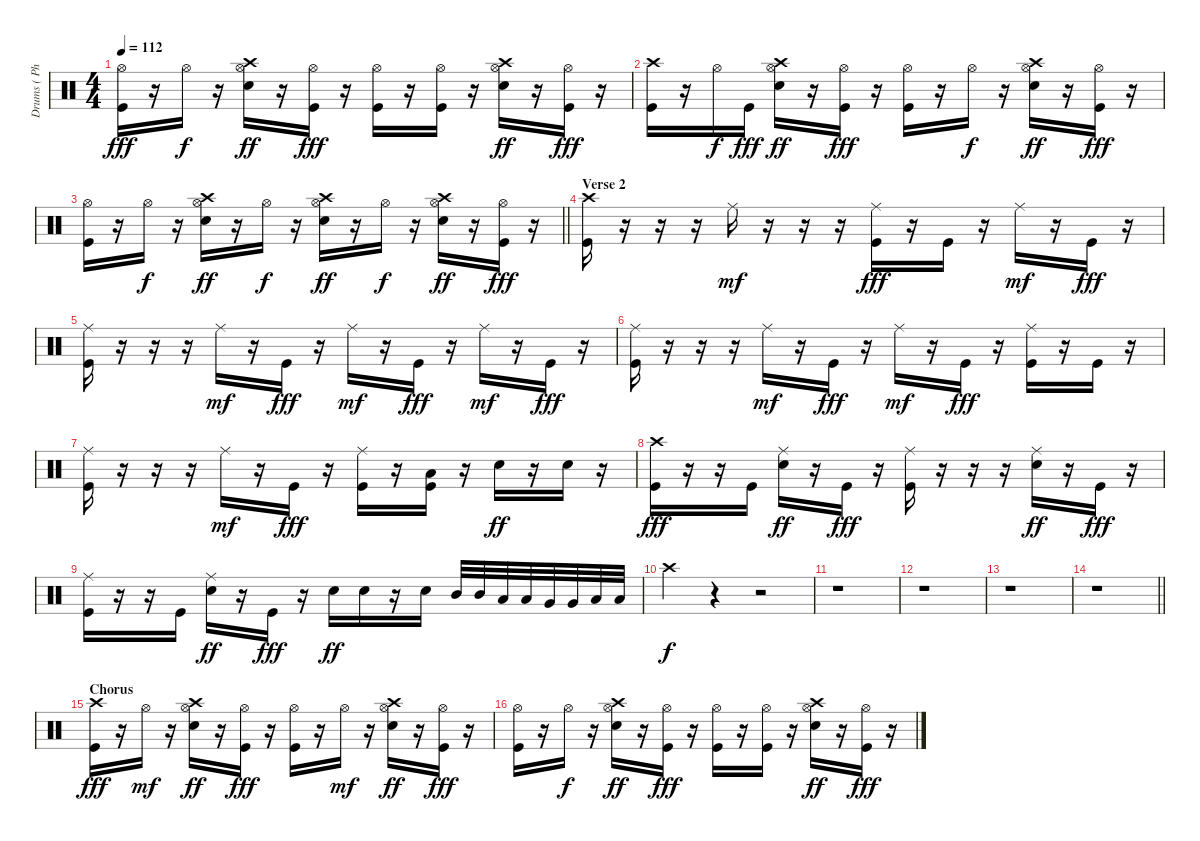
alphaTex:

\track ("Drums ( Phillip Selway )" "Drums ( Ph") {instrument percussion}
\staff {score}
\articulation defaults
\ts (4 4)
\tempo 112
\clef neutral
\ks c
("Hi-Hat (open)" "Kick (hit)").16{dy fff} r.16 "Hi-Hat (open)".16{dy f} r.16 ("Crash high (hit)" "Hi-Hat (open)" "Electric Snare (hit)").16{dy ff} r.16 ("Hi-Hat (open)" "Kick (hit)").16{dy fff} r.16 ("Hi-Hat (open)" "Kick (hit)").16 r.16 ("Hi-Hat (open)" "Kick (hit)").16 r.16 ("Crash high (hit)" "Hi-Hat (open)" "Electric Snare (hit)").16{dy ff} r.16 ("Hi-Hat (open)" "Kick (hit)").16{dy fff} r.16 |
("Crash high (hit)" "Kick (hit)").16 r.16 "Hi-Hat (open)".16{dy f} "Kick (hit)".16{dy fff} ("Crash high (hit)" "Hi-Hat (open)" "Electric Snare (hit)").16{dy ff} r.16 ("Hi-Hat (open)" "Kick (hit)").16{dy fff} r.16 ("Hi-Hat (open)" "Kick (hit)").16 r.16 "Hi-Hat (open)".16{dy f} r.16 ("Crash high (hit)" "Hi-Hat (open)" "Electric Snare (hit)").16{dy ff} r.16 ("Hi-Hat (open)" "Kick (hit)").16{dy fff} r.16 |
\barLineRight lightlight
("Hi-Hat (open)" "Kick (hit)").16 r.16 "Hi-Hat (open)".16{dy f} r.16 ("Crash high (hit)" "Hi-Hat (open)" "Electric Snare (hit)").16{dy ff} r.16 "Hi-Hat (open)".16{dy f} r.16 ("Crash high (hit)" "Hi-Hat (open)" "Electric Snare (hit)").16{dy ff} r.16 "Hi-Hat (open)".16{dy f} r.16 ("Crash high (hit)" "Hi-Hat (open)" "Electric Snare (hit)").16{dy ff} r.16 ("Hi-Hat (open)" "Kick (hit)").16{dy fff} r.16 |
\section ("" "Verse 2")
("Crash high (hit)" "Kick (hit)").16 r.16 r.16 r.16 "Ride (middle)".16{dy mf} r.16 r.16 r.16 ("Ride (middle)" "Kick (hit)").16{dy fff} r.16 "Kick (hit)".16 r.16 "Ride (middle)".16{dy mf} r.16 "Kick (hit)".16{dy fff} r.16 |
("Ride (middle)" "Kick (hit)").16 r.16 r.16 r.16 "Ride (middle)".16{dy mf} r.16 "Kick (hit)".16{dy fff} r.16 "Ride (middle)".16{dy mf} r.16 "Kick (hit)".16{dy fff} r.16 "Ride (middle)".16{dy mf} r.16 "Kick (hit)".16{dy fff} r.16 |
("Ride (middle)" "Kick (hit)").16 r.16 r.16 r.16 "Ride (middle)".16{dy mf} r.16 "Kick (hit)".16{dy fff} r.16 "Ride (middle)".16{dy mf} r.16 "Kick (hit)".16{dy fff} r.16 ("Ride (middle)" "Kick (hit)").16 r.16 "Kick (hit)".16 r.16 |
("Ride (middle)" "Kick (hit)").16 r.16 r.16 r.16 "Ride (middle)".16{dy mf} r.16 "Kick (hit)".16{dy fff} r.16 ("Ride (middle)" "Kick (hit)").16 r.16 ("Low Floor Tom (hit)" "Kick (hit)").16 r.16 "Electric Snare (hit)".16{dy ff} r.16 "Electric Snare (hit)".16 r.16 |
("Crash high (hit)" "Kick (hit)").16{dy fff} r.16 r.16 "Kick (hit)".16 ("Ride (middle)" "Electric Snare (hit)").16{dy ff} r.16 "Kick (hit)".16{dy fff} r.16 ("Ride (middle)" "Kick (hit)").16 r.16 r.16 r.16 ("Ride (middle)" "Electric Snare (hit)").16{dy ff} r.16 "Kick (hit)".16{dy fff} r.16 |
("Ride (middle)" "Kick (hit)").16 r.16 r.16 "Kick (hit)".16 ("Ride (middle)" "Electric Snare (hit)").16{dy ff} r.16 "Kick (hit)".16{dy fff} r.16 "Electric Snare (hit)".16{dy ff} "Electric Snare (hit)".16 r.16 "Electric Snare (hit)".16 "Mid Tom (hit)".32 "Mid Tom (hit)".32 "Low Tom (hit)".32 "Low Tom (hit)".32 "Very Low Tom (hit)".32 "Very Low Tom (hit)".32 "Low Floor Tom (hit)".32 "Low Floor Tom (hit)".32 |
"Crash high (hit)".4{dy f} r.4 r.2 |
r.1 |
r.1 |
r.1 |
\barLineRight lightlight
r.1 |
\section ("" "Chorus")
("Crash high (hit)" "Kick (hit)").16{dy fff} r.16 "Hi-Hat (open)".16{dy mf} r.16 ("Crash high (hit)" "Hi-Hat (open)" "Electric Snare (hit)").16{dy ff} r.16 ("Hi-Hat (open)" "Kick (hit)").16{dy fff} r.16 ("Hi-Hat (open)" "Kick (hit)").16 r.16 "Hi-Hat (open)".16{dy mf} r.16 ("Crash high (hit)" "Hi-Hat (open)" "Electric Snare (hit)").16{dy ff} r.16 ("Hi-Hat (open)" "Kick (hit)").16{dy fff} r.16 |
("Hi-Hat (open)" "Kick (hit)").16 r.16 "Hi-Hat (open)".16{dy f} r.16 ("Crash high (hit)" "Hi-Hat (open)" "Electric Snare (hit)").16{dy ff} r.16 ("Hi-Hat (open)" "Kick (hit)").16{dy fff} r.16 ("Hi-Hat (open)" "Kick (hit)").16 r.16 ("Hi-Hat (open)" "Kick (hit)").16 r.16 ("Crash high (hit)" "Hi-Hat (open)" "Electric Snare (hit)").16{dy ff} r.16 ("Hi-Hat (open)" "Kick (hit)").16{dy fff} r.16
